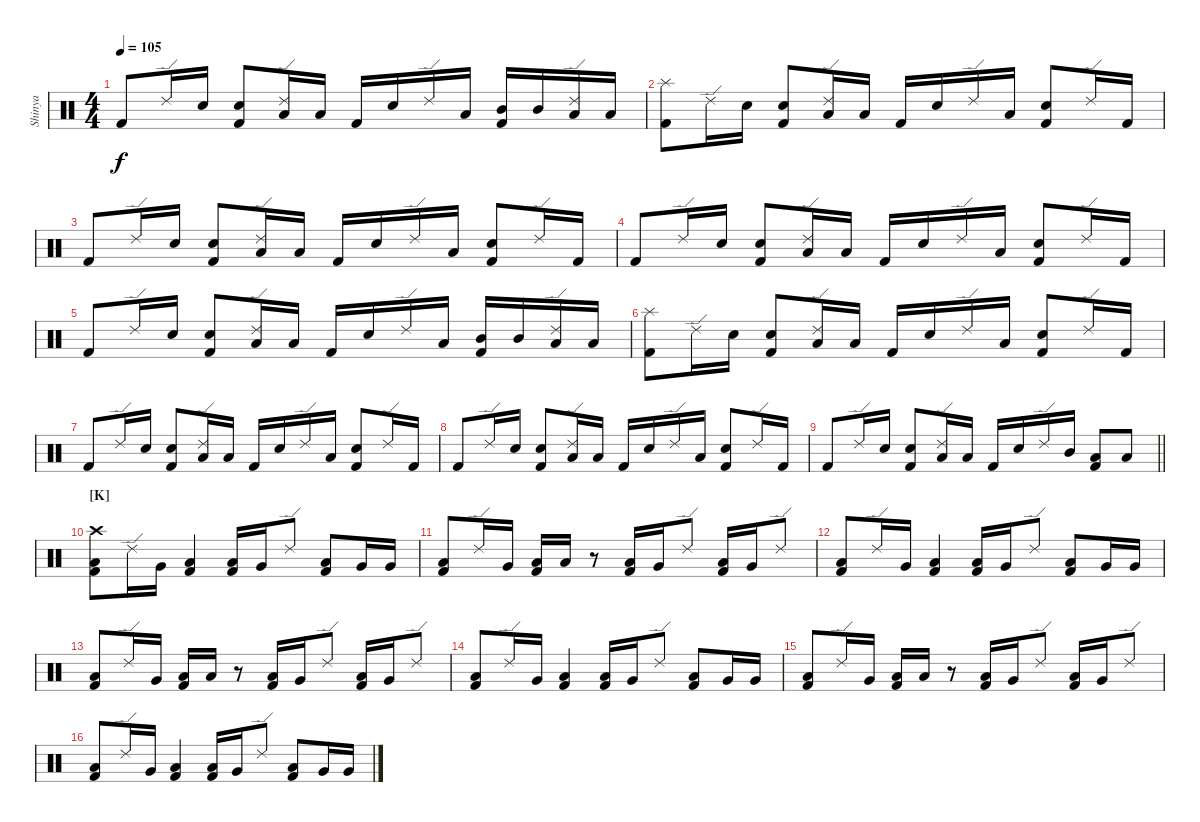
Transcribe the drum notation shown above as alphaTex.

\track ("Shinya" "Shinya") {instrument percussion}
\staff {score}
\articulation defaults
\ts (4 4)
\tempo 105
\clef neutral
\ks c "Kick (hit) 2".8{dy f} "Ride (edge) 2".16 "Snare (hit) 2".16
("Snare (hit) 2" "Kick (hit) 2").8 ("Ride (edge) 2" "Low Tom (hit)").16 "Low Tom (hit)".16 "Kick (hit) 2".16 "Snare (hit) 2".16 "Ride (edge) 2".16 "Low Floor Tom (hit)".16 ("Mid Tom (hit)" "Kick (hit) 2").16 "Mid Tom (hit)".16 ("Ride (edge) 2" "Low Tom (hit)").16 "Low Tom (hit)".16 |
("Splash (hit)" "Kick (hit) 2").8 "Ride (edge) 2".16 "Snare (hit) 2".16 ("Snare (hit) 2" "Kick (hit) 2").8 ("Ride (edge) 2" "Low Tom (hit)").16 "Low Tom (hit)".16 "Kick (hit) 2".16 "Snare (hit) 2".16 "Ride (edge) 2".16 "Low Tom (hit)".16 ("Snare (hit) 2" "Kick (hit) 2").8 "Ride (edge) 2".16 "Kick (hit) 2".16 |
"Kick (hit) 2".8 "Ride (edge) 2".16 "Snare (hit) 2".16 ("Snare (hit) 2" "Kick (hit) 2").8 ("Ride (edge) 2" "Low Tom (hit)").16 "Low Tom (hit)".16 "Kick (hit) 2".16 "Snare (hit) 2".16 "Ride (edge) 2".16 "Low Tom (hit)".16 ("Snare (hit) 2" "Kick (hit) 2").8 "Ride (edge) 2".16 "Kick (hit) 2".16 |
"Kick (hit) 2".8 "Ride (edge) 2".16 "Snare (hit) 2".16 ("Snare (hit) 2" "Kick (hit) 2").8 ("Ride (edge) 2" "Low Tom (hit)").16 "Low Tom (hit)".16 "Kick (hit) 2".16 "Snare (hit) 2".16 "Ride (edge) 2".16 "Low Tom (hit)".16 ("Snare (hit) 2" "Kick (hit) 2").8 "Ride (edge) 2".16 "Kick (hit) 2".16 |
"Kick (hit) 2".8 "Ride (edge) 2".16 "Snare (hit) 2".16 ("Snare (hit) 2" "Kick (hit) 2").8 ("Ride (edge) 2" "Low Tom (hit)").16 "Low Tom (hit)".16 "Kick (hit) 2".16 "Snare (hit) 2".16 "Ride (edge) 2".16 "Low Floor Tom (hit)".16 ("Mid Tom (hit)" "Kick (hit) 2").16 "Mid Tom (hit)".16 ("Ride (edge) 2" "Low Tom (hit)").16 "Low Tom (hit)".16 |
("Splash (hit)" "Kick (hit) 2").8 "Ride (edge) 2".16 "Snare (hit) 2".16 ("Snare (hit) 2" "Kick (hit) 2").8 ("Ride (edge) 2" "Low Tom (hit)").16 "Low Tom (hit)".16 "Kick (hit) 2".16 "Snare (hit) 2".16 "Ride (edge) 2".16 "Low Tom (hit)".16 ("Snare (hit) 2" "Kick (hit) 2").8 "Ride (edge) 2".16 "Kick (hit) 2".16 |
"Kick (hit) 2".8 "Ride (edge) 2".16 "Snare (hit) 2".16 ("Snare (hit) 2" "Kick (hit) 2").8 ("Ride (edge) 2" "Low Tom (hit)").16 "Low Tom (hit)".16 "Kick (hit) 2".16 "Snare (hit) 2".16 "Ride (edge) 2".16 "Low Tom (hit)".16 ("Snare (hit) 2" "Kick (hit) 2").8 "Ride (edge) 2".16 "Kick (hit) 2".16 |
"Kick (hit) 2".8 "Ride (edge) 2".16 "Snare (hit) 2".16 ("Snare (hit) 2" "Kick (hit) 2").8 ("Ride (edge) 2" "Low Tom (hit)").16 "Low Tom (hit)".16 "Kick (hit) 2".16 "Snare (hit) 2".16 "Ride (edge) 2".16 "Low Tom (hit)".16 ("Snare (hit) 2" "Kick (hit) 2").8 "Ride (edge) 2".16 "Kick (hit) 2".16 |
\barLineRight lightlight "Kick (hit) 2".8 "Ride (edge) 2".16 "Snare (hit) 2".16
("Snare (hit) 2" "Kick (hit) 2").8 ("Ride (edge) 2" "Low Tom (hit)").16 "Low Tom (hit)".16 "Kick (hit) 2".16 "Snare (hit) 2".16 "Ride (edge) 2".16 "Mid Tom (hit)".16 ("Low Tom (hit)" "Kick (hit) 2").8 "Low Floor Tom (hit)".8 |
\section ("" "[K]")
("Crash high (hit)" "Low Floor Tom (hit)" "Kick (hit) 2").8 "Ride (edge) 2".16 "Very Low Tom (hit)".16 ("Low Floor Tom (hit)" "Kick (hit) 2").4 ("Low Floor Tom (hit)" "Kick (hit) 2").16 "Very Low Tom (hit)".16 "Ride (edge) 2".8 ("Low Floor Tom (hit)" "Kick (hit) 2").8 "Very Low Tom (hit)".16 "Very Low Tom (hit)".16 |
("Low Floor Tom (hit)" "Kick (hit) 2").8 "Ride (edge) 2".16 "Very Low Tom (hit)".16 ("Low Floor Tom (hit)" "Kick (hit) 2").16 "Low Floor Tom (hit)".16 r.8 ("Low Floor Tom (hit)" "Kick (hit) 2").16 "Very Low Tom (hit)".16 "Ride (edge) 2".8 ("Low Floor Tom (hit)" "Kick (hit) 2").16 "Very Low Tom (hit)".16 "Ride (edge) 2".8 |
("Low Floor Tom (hit)" "Kick (hit) 2").8 "Ride (edge) 2".16 "Very Low Tom (hit)".16 ("Low Floor Tom (hit)" "Kick (hit) 2").4 ("Low Floor Tom (hit)" "Kick (hit) 2").16 "Very Low Tom (hit)".16 "Ride (edge) 2".8 ("Low Floor Tom (hit)" "Kick (hit) 2").8 "Very Low Tom (hit)".16 "Very Low Tom (hit)".16 |
("Low Floor Tom (hit)" "Kick (hit) 2").8 "Ride (edge) 2".16 "Very Low Tom (hit)".16 ("Low Floor Tom (hit)" "Kick (hit) 2").16 "Low Floor Tom (hit)".16 r.8 ("Low Floor Tom (hit)" "Kick (hit) 2").16 "Very Low Tom (hit)".16 "Ride (edge) 2".8 ("Low Floor Tom (hit)" "Kick (hit) 2").16 "Very Low Tom (hit)".16 "Ride (edge) 2".8 |
("Low Floor Tom (hit)" "Kick (hit) 2").8 "Ride (edge) 2".16 "Very Low Tom (hit)".16 ("Low Floor Tom (hit)" "Kick (hit) 2").4 ("Low Floor Tom (hit)" "Kick (hit) 2").16 "Very Low Tom (hit)".16 "Ride (edge) 2".8 ("Low Floor Tom (hit)" "Kick (hit) 2").8 "Very Low Tom (hit)".16 "Very Low Tom (hit)".16 |
("Low Floor Tom (hit)" "Kick (hit) 2").8 "Ride (edge) 2".16 "Very Low Tom (hit)".16 ("Low Floor Tom (hit)" "Kick (hit) 2").16 "Low Floor Tom (hit)".16 r.8 ("Low Floor Tom (hit)" "Kick (hit) 2").16 "Very Low Tom (hit)".16 "Ride (edge) 2".8 ("Low Floor Tom (hit)" "Kick (hit) 2").16 "Very Low Tom (hit)".16 "Ride (edge) 2".8 |
("Low Floor Tom (hit)" "Kick (hit) 2").8 "Ride (edge) 2".16 "Very Low Tom (hit)".16 ("Low Floor Tom (hit)" "Kick (hit) 2").4 ("Low Floor Tom (hit)" "Kick (hit) 2").16 "Very Low Tom (hit)".16 "Ride (edge) 2".8 ("Low Floor Tom (hit)" "Kick (hit) 2").8 "Very Low Tom (hit)".16 "Very Low Tom (hit)".16
